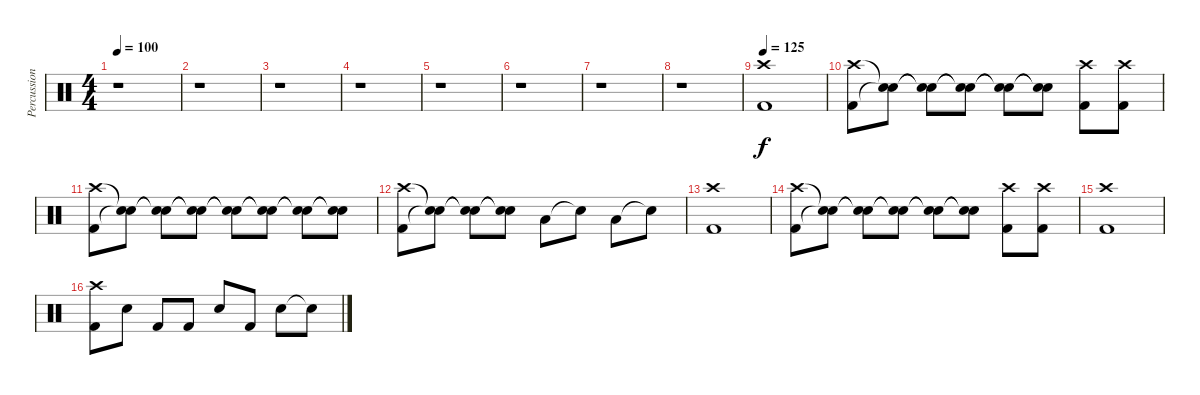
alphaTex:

\track ("Percussion" "Percussion") {instrument percussion}
\staff {score}
\articulation defaults
\ts (4 4)
\tempo 100
\clef neutral
\ks c
r.1{dy f} |
r.1 |
r.1 |
r.1 |
r.1 |
r.1 |
r.1 |
r.1 |
\tempo 125
("Kick (hit) 2" "Crash high (hit)").1 |
("Kick (hit) 2" "Crash high (hit)").8 ("Snare (hit)"{t} "Snare (hit)"{t}).8 ("Snare (hit)"{t} "Snare (hit)"{t}).8 ("Snare (hit)"{t} "Snare (hit)"{t}).8 ("Snare (hit)"{t} "Snare (hit)"{t}).8 ("Snare (hit)"{t} "Snare (hit)"{t}).8 ("Kick (hit) 2" "Crash high (hit)").8 ("Kick (hit) 2" "Crash high (hit)").8 |
("Kick (hit) 2" "Crash high (hit)").8 ("Snare (hit)"{t} "Snare (hit)"{t}).8 ("Snare (hit)"{t} "Snare (hit)"{t}).8 ("Snare (hit)"{t} "Snare (hit)"{t}).8 ("Snare (hit)"{t} "Snare (hit)"{t}).8 ("Snare (hit)"{t} "Snare (hit)"{t}).8 ("Snare (hit)"{t} "Snare (hit)"{t}).8 ("Snare (hit)"{t} "Snare (hit)"{t}).8 |
("Kick (hit) 2" "Crash high (hit)").8 ("Snare (hit)"{t} "Snare (hit)"{t}).8 ("Snare (hit)"{t} "Snare (hit)"{t}).8 ("Snare (hit)"{t} "Snare (hit)"{t}).8 "Low Tom (hit)".8 "Snare (hit)"{t}.8 "Low Tom (hit)".8 "Snare (hit)"{t}.8 |
("Kick (hit) 2" "Crash high (hit)").1 |
("Kick (hit) 2" "Crash high (hit)").8 ("Snare (hit)"{t} "Snare (hit)"{t}).8 ("Snare (hit)"{t} "Snare (hit)"{t}).8 ("Snare (hit)"{t} "Snare (hit)"{t}).8 ("Snare (hit)"{t} "Snare (hit)"{t}).8 ("Snare (hit)"{t} "Snare (hit)"{t}).8 ("Kick (hit) 2" "Crash high (hit)").8 ("Kick (hit) 2" "Crash high (hit)").8 |
("Kick (hit) 2" "Crash high (hit)").1 |
("Kick (hit) 2" "Crash high (hit)").8 "Snare (hit) 2".8 "Kick (hit) 2".8 "Kick (hit) 2".8 "Snare (hit) 2".8 "Kick (hit) 2".8 "Snare (hit) 2".8 "Snare (hit)"{t}.8
